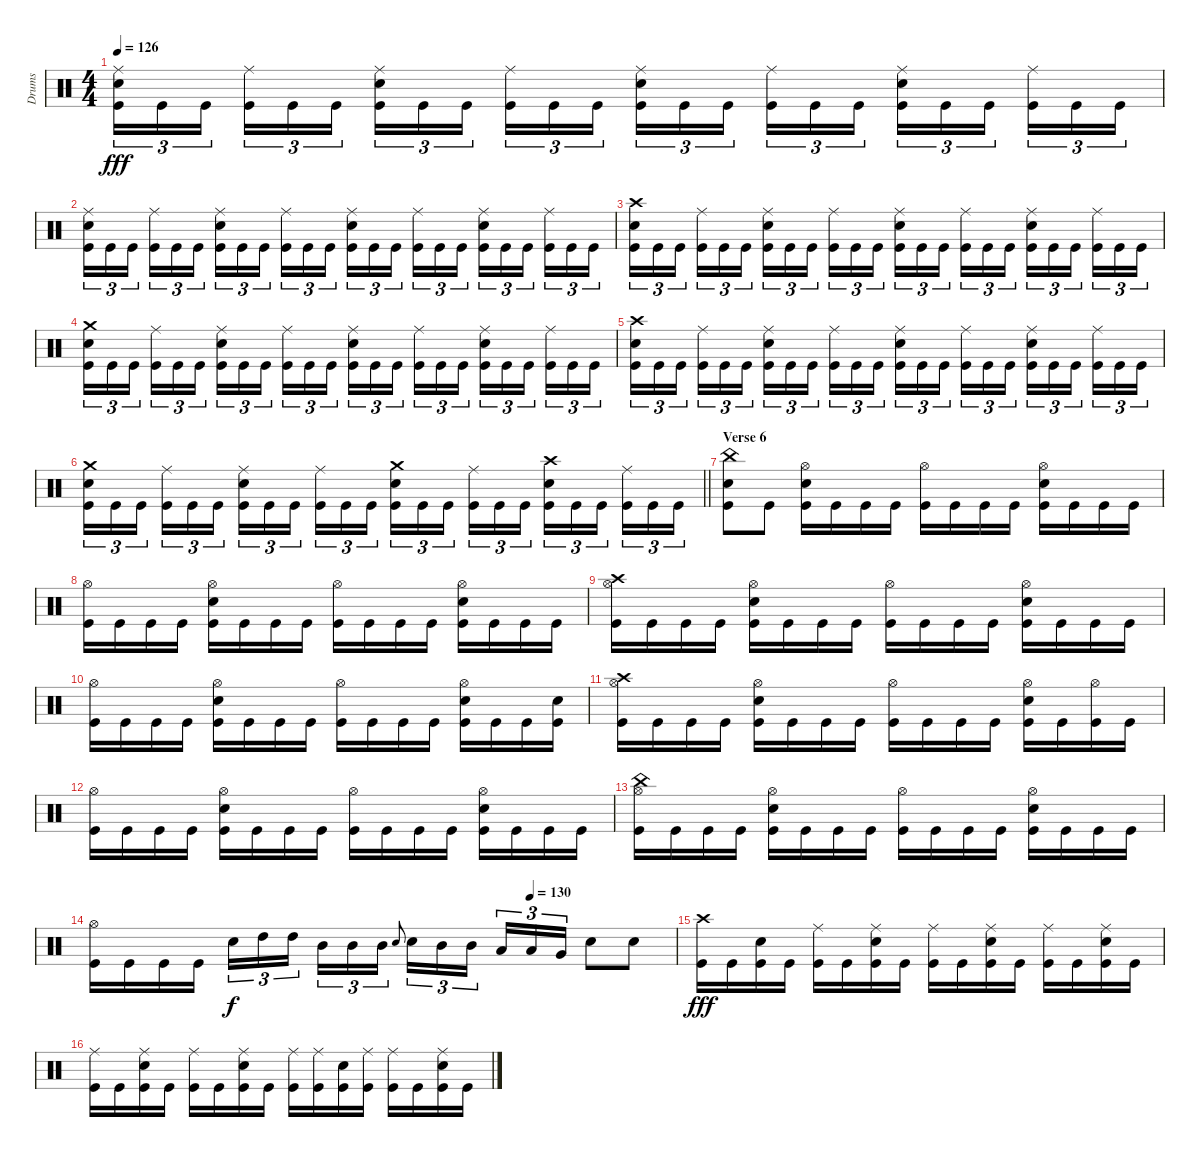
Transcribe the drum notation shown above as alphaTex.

\track ("Drums" "Drums") {instrument percussion}
\staff {score}
\articulation defaults
\ts (4 4)
\tempo 126
\clef neutral
\ks c
("Ride (middle)" "Electric Snare (hit)" "Kick (hit)").16{tu (3 2) dy fff} "Kick (hit)".16{tu (3 2)} "Kick (hit)".16{tu (3 2) beam splitsecondary} ("Ride (middle)" "Kick (hit)").16{tu (3 2)} "Kick (hit)".16{tu (3 2)} "Kick (hit)".16{tu (3 2)} ("Ride (middle)" "Electric Snare (hit)" "Kick (hit)").16{tu (3 2)} "Kick (hit)".16{tu (3 2)} "Kick (hit)".16{tu (3 2) beam splitsecondary} ("Ride (middle)" "Kick (hit)").16{tu (3 2)} "Kick (hit)".16{tu (3 2)} "Kick (hit)".16{tu (3 2)} ("Ride (middle)" "Electric Snare (hit)" "Kick (hit)").16{tu (3 2)} "Kick (hit)".16{tu (3 2)} "Kick (hit)".16{tu (3 2) beam splitsecondary} ("Ride (middle)" "Kick (hit)").16{tu (3 2)} "Kick (hit)".16{tu (3 2)} "Kick (hit)".16{tu (3 2)} ("Ride (middle)" "Electric Snare (hit)" "Kick (hit)").16{tu (3 2)} "Kick (hit)".16{tu (3 2)} "Kick (hit)".16{tu (3 2) beam splitsecondary} ("Ride (middle)" "Kick (hit)").16{tu (3 2)} "Kick (hit)".16{tu (3 2)} "Kick (hit)".16{tu (3 2)} |
("Ride (middle)" "Electric Snare (hit)" "Kick (hit)").16{tu (3 2)} "Kick (hit)".16{tu (3 2)} "Kick (hit)".16{tu (3 2) beam splitsecondary} ("Ride (middle)" "Kick (hit)").16{tu (3 2)} "Kick (hit)".16{tu (3 2)} "Kick (hit)".16{tu (3 2)} ("Ride (middle)" "Electric Snare (hit)" "Kick (hit)").16{tu (3 2)} "Kick (hit)".16{tu (3 2)} "Kick (hit)".16{tu (3 2) beam splitsecondary} ("Ride (middle)" "Kick (hit)").16{tu (3 2)} "Kick (hit)".16{tu (3 2)} "Kick (hit)".16{tu (3 2)} ("Ride (middle)" "Electric Snare (hit)" "Kick (hit)").16{tu (3 2)} "Kick (hit)".16{tu (3 2)} "Kick (hit)".16{tu (3 2) beam splitsecondary} ("Ride (middle)" "Kick (hit)").16{tu (3 2)} "Kick (hit)".16{tu (3 2)} "Kick (hit)".16{tu (3 2)} ("Ride (middle)" "Electric Snare (hit)" "Kick (hit)").16{tu (3 2)} "Kick (hit)".16{tu (3 2)} "Kick (hit)".16{tu (3 2) beam splitsecondary} ("Ride (middle)" "Kick (hit)").16{tu (3 2)} "Kick (hit)".16{tu (3 2)} "Kick (hit)".16{tu (3 2)} |
("Crash high (hit)" "Electric Snare (hit)" "Kick (hit)").16{tu (3 2)} "Kick (hit)".16{tu (3 2)} "Kick (hit)".16{tu (3 2) beam splitsecondary} ("Ride (middle)" "Kick (hit)").16{tu (3 2)} "Kick (hit)".16{tu (3 2)} "Kick (hit)".16{tu (3 2)} ("Ride (middle)" "Electric Snare (hit)" "Kick (hit)").16{tu (3 2)} "Kick (hit)".16{tu (3 2)} "Kick (hit)".16{tu (3 2) beam splitsecondary} ("Ride (middle)" "Kick (hit)").16{tu (3 2)} "Kick (hit)".16{tu (3 2)} "Kick (hit)".16{tu (3 2)} ("Ride (middle)" "Electric Snare (hit)" "Kick (hit)").16{tu (3 2)} "Kick (hit)".16{tu (3 2)} "Kick (hit)".16{tu (3 2) beam splitsecondary} ("Ride (middle)" "Kick (hit)").16{tu (3 2)} "Kick (hit)".16{tu (3 2)} "Kick (hit)".16{tu (3 2)} ("Ride (middle)" "Electric Snare (hit)" "Kick (hit)").16{tu (3 2)} "Kick (hit)".16{tu (3 2)} "Kick (hit)".16{tu (3 2) beam splitsecondary} ("Ride (middle)" "Kick (hit)").16{tu (3 2)} "Kick (hit)".16{tu (3 2)} "Kick (hit)".16{tu (3 2)} |
("Crash medium (hit)" "Electric Snare (hit)" "Kick (hit)").16{tu (3 2)} "Kick (hit)".16{tu (3 2)} "Kick (hit)".16{tu (3 2) beam splitsecondary} ("Ride (middle)" "Kick (hit)").16{tu (3 2)} "Kick (hit)".16{tu (3 2)} "Kick (hit)".16{tu (3 2)} ("Ride (middle)" "Electric Snare (hit)" "Kick (hit)").16{tu (3 2)} "Kick (hit)".16{tu (3 2)} "Kick (hit)".16{tu (3 2) beam splitsecondary} ("Ride (middle)" "Kick (hit)").16{tu (3 2)} "Kick (hit)".16{tu (3 2)} "Kick (hit)".16{tu (3 2)} ("Ride (middle)" "Electric Snare (hit)" "Kick (hit)").16{tu (3 2)} "Kick (hit)".16{tu (3 2)} "Kick (hit)".16{tu (3 2) beam splitsecondary} ("Ride (middle)" "Kick (hit)").16{tu (3 2)} "Kick (hit)".16{tu (3 2)} "Kick (hit)".16{tu (3 2)} ("Ride (middle)" "Electric Snare (hit)" "Kick (hit)").16{tu (3 2)} "Kick (hit)".16{tu (3 2)} "Kick (hit)".16{tu (3 2) beam splitsecondary} ("Ride (middle)" "Kick (hit)").16{tu (3 2)} "Kick (hit)".16{tu (3 2)} "Kick (hit)".16{tu (3 2)} |
("Crash high (hit)" "Electric Snare (hit)" "Kick (hit)").16{tu (3 2)} "Kick (hit)".16{tu (3 2)} "Kick (hit)".16{tu (3 2) beam splitsecondary} ("Ride (middle)" "Kick (hit)").16{tu (3 2)} "Kick (hit)".16{tu (3 2)} "Kick (hit)".16{tu (3 2)} ("Ride (middle)" "Electric Snare (hit)" "Kick (hit)").16{tu (3 2)} "Kick (hit)".16{tu (3 2)} "Kick (hit)".16{tu (3 2) beam splitsecondary} ("Ride (middle)" "Kick (hit)").16{tu (3 2)} "Kick (hit)".16{tu (3 2)} "Kick (hit)".16{tu (3 2)} ("Ride (middle)" "Electric Snare (hit)" "Kick (hit)").16{tu (3 2)} "Kick (hit)".16{tu (3 2)} "Kick (hit)".16{tu (3 2) beam splitsecondary} ("Ride (middle)" "Kick (hit)").16{tu (3 2)} "Kick (hit)".16{tu (3 2)} "Kick (hit)".16{tu (3 2)} ("Ride (middle)" "Electric Snare (hit)" "Kick (hit)").16{tu (3 2)} "Kick (hit)".16{tu (3 2)} "Kick (hit)".16{tu (3 2) beam splitsecondary} ("Ride (middle)" "Kick (hit)").16{tu (3 2)} "Kick (hit)".16{tu (3 2)} "Kick (hit)".16{tu (3 2)} |
\barLineRight lightlight
("Crash medium (hit)" "Electric Snare (hit)" "Kick (hit)").16{tu (3 2)} "Kick (hit)".16{tu (3 2)} "Kick (hit)".16{tu (3 2) beam splitsecondary} ("Ride (middle)" "Kick (hit)").16{tu (3 2)} "Kick (hit)".16{tu (3 2)} "Kick (hit)".16{tu (3 2)} ("Ride (middle)" "Electric Snare (hit)" "Kick (hit)").16{tu (3 2)} "Kick (hit)".16{tu (3 2)} "Kick (hit)".16{tu (3 2) beam splitsecondary} ("Ride (middle)" "Kick (hit)").16{tu (3 2)} "Kick (hit)".16{tu (3 2)} "Kick (hit)".16{tu (3 2)} ("Crash medium (hit)" "Electric Snare (hit)" "Kick (hit)").16{tu (3 2)} "Kick (hit)".16{tu (3 2)} "Kick (hit)".16{tu (3 2) beam splitsecondary} ("Ride (middle)" "Kick (hit)").16{tu (3 2)} "Kick (hit)".16{tu (3 2)} "Kick (hit)".16{tu (3 2)} ("Crash high (hit)" "Electric Snare (hit)" "Kick (hit)").16{tu (3 2)} "Kick (hit)".16{tu (3 2)} "Kick (hit)".16{tu (3 2) beam splitsecondary} ("Ride (middle)" "Kick (hit)").16{tu (3 2)} "Kick (hit)".16{tu (3 2)} "Kick (hit)".16{tu (3 2)} |
\section ("" "Verse 6")
("China (hit)" "Electric Snare (hit)" "Kick (hit)").8 "Kick (hit)".8 ("Hi-Hat (open)" "Electric Snare (hit)" "Kick (hit)").16 "Kick (hit)".16 "Kick (hit)".16 "Kick (hit)".16 ("Hi-Hat (open)" "Kick (hit)").16 "Kick (hit)".16 "Kick (hit)".16 "Kick (hit)".16 ("Hi-Hat (open)" "Electric Snare (hit)" "Kick (hit)").16 "Kick (hit)".16 "Kick (hit)".16 "Kick (hit)".16 |
("Hi-Hat (open)" "Kick (hit)").16 "Kick (hit)".16 "Kick (hit)".16 "Kick (hit)".16 ("Hi-Hat (open)" "Electric Snare (hit)" "Kick (hit)").16 "Kick (hit)".16 "Kick (hit)".16 "Kick (hit)".16 ("Hi-Hat (open)" "Kick (hit)").16 "Kick (hit)".16 "Kick (hit)".16 "Kick (hit)".16 ("Hi-Hat (open)" "Electric Snare (hit)" "Kick (hit)").16 "Kick (hit)".16 "Kick (hit)".16 "Kick (hit)".16 |
("Crash high (hit)" "Hi-Hat (open)" "Kick (hit)").16 "Kick (hit)".16 "Kick (hit)".16 "Kick (hit)".16 ("Hi-Hat (open)" "Electric Snare (hit)" "Kick (hit)").16 "Kick (hit)".16 "Kick (hit)".16 "Kick (hit)".16 ("Hi-Hat (open)" "Kick (hit)").16 "Kick (hit)".16 "Kick (hit)".16 "Kick (hit)".16 ("Hi-Hat (open)" "Electric Snare (hit)" "Kick (hit)").16 "Kick (hit)".16 "Kick (hit)".16 "Kick (hit)".16 |
("Hi-Hat (open)" "Kick (hit)").16 "Kick (hit)".16 "Kick (hit)".16 "Kick (hit)".16 ("Hi-Hat (open)" "Electric Snare (hit)" "Kick (hit)").16 "Kick (hit)".16 "Kick (hit)".16 "Kick (hit)".16 ("Hi-Hat (open)" "Kick (hit)").16 "Kick (hit)".16 "Kick (hit)".16 "Kick (hit)".16 ("Hi-Hat (open)" "Electric Snare (hit)" "Kick (hit)").16 "Kick (hit)".16 "Kick (hit)".16 ("Electric Snare (hit)" "Kick (hit)").16 |
("Crash high (hit)" "Hi-Hat (open)" "Kick (hit)").16 "Kick (hit)".16 "Kick (hit)".16 "Kick (hit)".16 ("Hi-Hat (open)" "Electric Snare (hit)" "Kick (hit)").16 "Kick (hit)".16 "Kick (hit)".16 "Kick (hit)".16 ("Hi-Hat (open)" "Kick (hit)").16 "Kick (hit)".16 "Kick (hit)".16 "Kick (hit)".16 ("Hi-Hat (open)" "Electric Snare (hit)" "Kick (hit)").16 "Kick (hit)".16 ("Hi-Hat (open)" "Kick (hit)").16 "Kick (hit)".16 |
("Hi-Hat (open)" "Kick (hit)").16 "Kick (hit)".16 "Kick (hit)".16 "Kick (hit)".16 ("Hi-Hat (open)" "Electric Snare (hit)" "Kick (hit)").16 "Kick (hit)".16 "Kick (hit)".16 "Kick (hit)".16 ("Hi-Hat (open)" "Kick (hit)").16 "Kick (hit)".16 "Kick (hit)".16 "Kick (hit)".16 ("Hi-Hat (open)" "Electric Snare (hit)" "Kick (hit)").16 "Kick (hit)".16 "Kick (hit)".16 "Kick (hit)".16 |
("China (hit)" "Hi-Hat (open)" "Kick (hit)").16 "Kick (hit)".16 "Kick (hit)".16 "Kick (hit)".16 ("Hi-Hat (open)" "Electric Snare (hit)" "Kick (hit)").16 "Kick (hit)".16 "Kick (hit)".16 "Kick (hit)".16 ("Hi-Hat (open)" "Kick (hit)").16 "Kick (hit)".16 "Kick (hit)".16 "Kick (hit)".16 ("Hi-Hat (open)" "Electric Snare (hit)" "Kick (hit)").16 "Kick (hit)".16 "Kick (hit)".16 "Kick (hit)".16 |
\tempo (130 0.75)
("Hi-Hat (open)" "Kick (hit)").16 "Kick (hit)".16 "Kick (hit)".16 "Kick (hit)".16 "Electric Snare (hit)".16{tu (3 2) dy f} "High Tom (hit)".16{tu (3 2)} "High Tom (hit)".16{tu (3 2) beam splitsecondary} "Mid Tom (hit)".16{tu (3 2)} "Mid Tom (hit)".16{tu (3 2)} "Mid Tom (hit)".16{tu (3 2)} "Electric Snare (hit)".8{gr onbeat} "Electric Snare (hit)".16{tu (3 2)} "Mid Tom (hit)".16{tu (3 2)} "Mid Tom (hit)".16{tu (3 2) beam splitsecondary} "Low Tom (hit)".16{tu (3 2)} "Low Tom (hit)".16{tu (3 2)} "Very Low Tom (hit)".16{tu (3 2)} "Electric Snare (hit)".8 "Electric Snare (hit)".8 |
("Crash high (hit)" "Kick (hit)").16{dy fff} "Kick (hit)".16 ("Electric Snare (hit)" "Kick (hit)").16 "Kick (hit)".16 ("Ride (middle)" "Kick (hit)").16 "Kick (hit)".16 ("Ride (middle)" "Electric Snare (hit)" "Kick (hit)").16 "Kick (hit)".16 ("Ride (middle)" "Kick (hit)").16 "Kick (hit)".16 ("Ride (middle)" "Electric Snare (hit)" "Kick (hit)").16 "Kick (hit)".16 ("Ride (middle)" "Kick (hit)").16 "Kick (hit)".16 ("Ride (middle)" "Electric Snare (hit)" "Kick (hit)").16 "Kick (hit)".16 |
("Ride (middle)" "Kick (hit)").16 "Kick (hit)".16 ("Ride (middle)" "Electric Snare (hit)" "Kick (hit)").16 "Kick (hit)".16 ("Ride (middle)" "Kick (hit)").16 "Kick (hit)".16 ("Ride (middle)" "Electric Snare (hit)" "Kick (hit)").16 "Kick (hit)".16 ("Ride (middle)" "Kick (hit)").16 ("Ride (middle)" "Kick (hit)").16 ("Electric Snare (hit)" "Kick (hit)").16 ("Ride (middle)" "Kick (hit)").16 ("Ride (middle)" "Kick (hit)").16 "Kick (hit)".16 ("Ride (middle)" "Electric Snare (hit)" "Kick (hit)").16 "Kick (hit)".16
